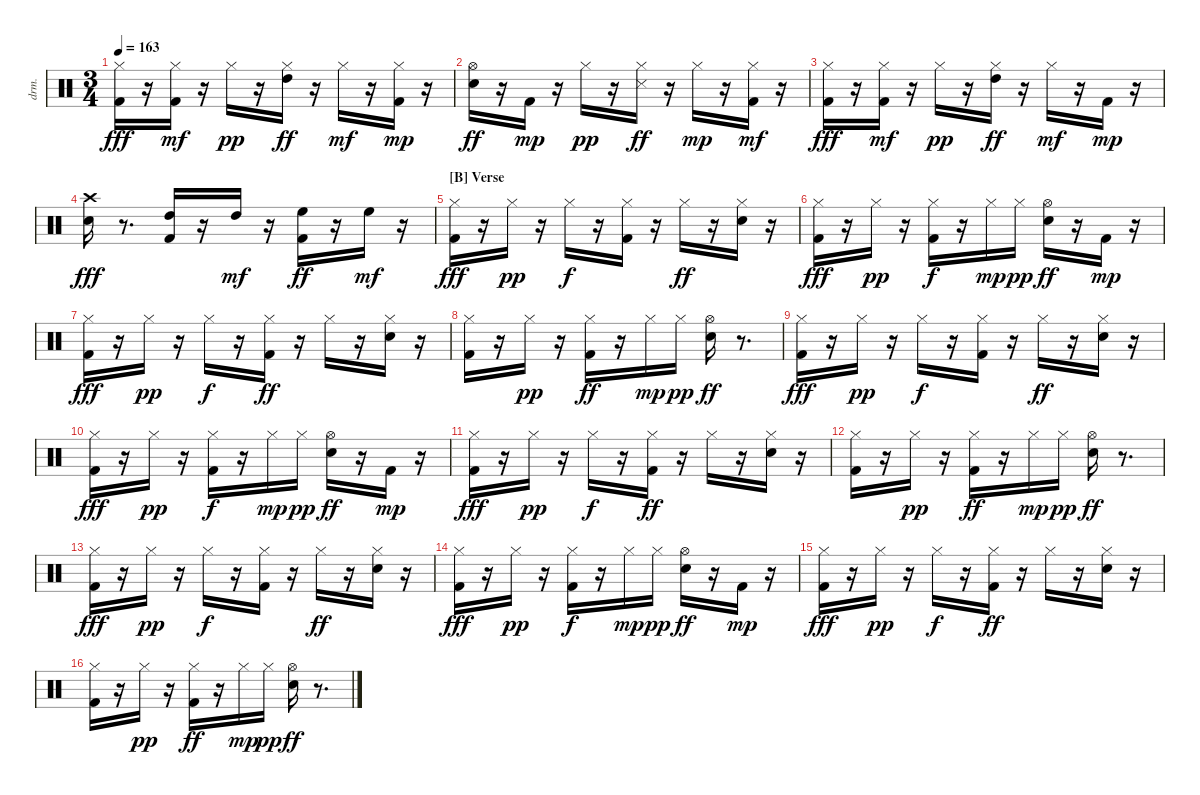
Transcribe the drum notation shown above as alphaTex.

\bracketExtendMode nobrackets
\track ("EZdrummer 3" "drm.") {instrument percussion}
\staff {score}
\articulation defaults
\ts (3 4)
\tempo 163
\clef neutral
\ks aminor
("Kick (hit) 2" "Hi-Hat (closed)"{acc #}).16{dy fff beam Down} r.16{beam Down} ("Kick (hit) 2" "Hi-Hat (closed)"{acc #}).16{dy mf beam Down} r.16{beam Down} "Hi-Hat (closed)"{acc #}.16{dy pp beam Down} r.16{beam Down} ("Hi-Hat (closed)"{acc #} "High Tom (hit)").16{dy ff beam Down} r.16{beam Down} "Hi-Hat (closed)"{acc #}.16{dy mf beam Down} r.16{beam Down} ("Kick (hit) 2" "Hi-Hat (closed)"{acc #}).16{dy mp beam Down} r.16{beam Down} |
("Snare (hit) 2" "Hi-Hat (open)"{acc #}).16{dy ff beam Down} r.16{beam Down} "Kick (hit) 2".16{dy mp beam Down} r.16{beam Down} "Hi-Hat (closed)"{acc #}.16{dy pp beam Down} r.16{beam Down} ("Snare (side stick) 3"{acc #} "Hi-Hat (closed)"{acc #}).16{dy ff beam Down} r.16{beam Down} "Hi-Hat (closed)"{acc #}.16{dy mp beam Down} r.16{beam Down} ("Kick (hit) 2" "Hi-Hat (closed)"{acc #}).16{dy mf beam Down} r.16{beam Down} |
("Kick (hit) 2" "Hi-Hat (closed)"{acc #}).16{dy fff beam Down} r.16{beam Down} ("Kick (hit) 2" "Hi-Hat (closed)"{acc #}).16{dy mf beam Down} r.16{beam Down} "Hi-Hat (closed)"{acc #}.16{dy pp beam Down} r.16{beam Down} ("Hi-Hat (closed)"{acc #} "High Tom (hit)").16{dy ff beam Down} r.16{beam Down} "Hi-Hat (closed)"{acc #}.16{dy mf beam Down} r.16{beam Down} "Kick (hit) 2".16{dy mp beam Down} r.16{beam Down} |
("Snare (hit) 2" "Crash high (hit)"{acc #}).16{dy fff beam Down} r.8{d beam Down} ("Kick (hit) 2" "High Tom (hit)").16{beam Up} r.16{beam Up} "High Tom (hit)".16{dy mf beam Up} r.16{beam Down} ("Kick (hit) 2" "High Floor Tom (hit)").16{dy ff beam Down} r.16{beam Down} "High Floor Tom (hit)".16{dy mf beam Down} r.16{beam Down} |
\section ("B" "Verse")
("Kick (hit) 2" "Hi-Hat (closed)"{acc #}).16{dy fff beam Down} r.16{beam Down} "Hi-Hat (closed)"{acc #}.16{dy pp beam Down} r.16{beam Down} "Hi-Hat (closed)"{acc #}.16{dy f beam Down} r.16{beam Down} ("Kick (hit) 2" "Hi-Hat (closed)"{acc #}).16{beam Down} r.16{beam Down} "Hi-Hat (closed)"{acc #}.16{dy ff beam Down} r.16{beam Down} ("Snare (hit) 2" "Hi-Hat (closed)"{acc #}).16{beam Down} r.16{beam Down} |
("Kick (hit) 2" "Hi-Hat (closed)"{acc #}).16{dy fff beam Down} r.16{beam Down} "Hi-Hat (closed)"{acc #}.16{dy pp beam Down} r.16{beam Down} ("Kick (hit) 2" "Hi-Hat (closed)"{acc #}).16{dy f beam Down} r.16{beam Down} "Hi-Hat (closed)"{acc #}.16{dy mp beam Down} "Hi-Hat (closed)"{acc #}.16{dy pp beam Down} ("Snare (hit) 2" "Hi-Hat (open)"{acc #}).16{dy ff beam Down} r.16{beam Down} "Kick (hit) 2".16{dy mp beam Down} r.16{beam Down} |
("Kick (hit) 2" "Hi-Hat (closed)"{acc #}).16{dy fff beam Down} r.16{beam Down} "Hi-Hat (closed)"{acc #}.16{dy pp beam Down} r.16{beam Down} "Hi-Hat (closed)"{acc #}.16{dy f beam Down} r.16{beam Down} ("Kick (hit) 2" "Hi-Hat (closed)"{acc #}).16{dy ff beam Down} r.16{beam Down} "Hi-Hat (closed)"{acc #}.16{beam Down} r.16{beam Down} ("Snare (hit) 2" "Hi-Hat (closed)"{acc #}).16{beam Down} r.16{beam Down} |
("Kick (hit) 2" "Hi-Hat (closed)"{acc #}).16{beam Down} r.16{beam Down} "Hi-Hat (closed)"{acc #}.16{dy pp beam Down} r.16{beam Down} ("Kick (hit) 2" "Hi-Hat (closed)"{acc #}).16{dy ff beam Down} r.16{beam Down} "Hi-Hat (closed)"{acc #}.16{dy mp beam Down} "Hi-Hat (closed)"{acc #}.16{dy pp beam Down} ("Snare (hit) 2" "Hi-Hat (open)"{acc #}).16{dy ff beam Down} r.8{d beam Down} |
("Kick (hit) 2" "Hi-Hat (closed)"{acc #}).16{dy fff beam Down} r.16{beam Down} "Hi-Hat (closed)"{acc #}.16{dy pp beam Down} r.16{beam Down} "Hi-Hat (closed)"{acc #}.16{dy f beam Down} r.16{beam Down} ("Kick (hit) 2" "Hi-Hat (closed)"{acc #}).16{beam Down} r.16{beam Down} "Hi-Hat (closed)"{acc #}.16{dy ff beam Down} r.16{beam Down} ("Snare (hit) 2" "Hi-Hat (closed)"{acc #}).16{beam Down} r.16{beam Down} |
("Kick (hit) 2" "Hi-Hat (closed)"{acc #}).16{dy fff beam Down} r.16{beam Down} "Hi-Hat (closed)"{acc #}.16{dy pp beam Down} r.16{beam Down} ("Kick (hit) 2" "Hi-Hat (closed)"{acc #}).16{dy f beam Down} r.16{beam Down} "Hi-Hat (closed)"{acc #}.16{dy mp beam Down} "Hi-Hat (closed)"{acc #}.16{dy pp beam Down} ("Snare (hit) 2" "Hi-Hat (open)"{acc #}).16{dy ff beam Down} r.16{beam Down} "Kick (hit) 2".16{dy mp beam Down} r.16{beam Down} |
("Kick (hit) 2" "Hi-Hat (closed)"{acc #}).16{dy fff beam Down} r.16{beam Down} "Hi-Hat (closed)"{acc #}.16{dy pp beam Down} r.16{beam Down} "Hi-Hat (closed)"{acc #}.16{dy f beam Down} r.16{beam Down} ("Kick (hit) 2" "Hi-Hat (closed)"{acc #}).16{dy ff beam Down} r.16{beam Down} "Hi-Hat (closed)"{acc #}.16{beam Down} r.16{beam Down} ("Snare (hit) 2" "Hi-Hat (closed)"{acc #}).16{beam Down} r.16{beam Down} |
("Kick (hit) 2" "Hi-Hat (closed)"{acc #}).16{beam Down} r.16{beam Down} "Hi-Hat (closed)"{acc #}.16{dy pp beam Down} r.16{beam Down} ("Kick (hit) 2" "Hi-Hat (closed)"{acc #}).16{dy ff beam Down} r.16{beam Down} "Hi-Hat (closed)"{acc #}.16{dy mp beam Down} "Hi-Hat (closed)"{acc #}.16{dy pp beam Down} ("Snare (hit) 2" "Hi-Hat (open)"{acc #}).16{dy ff beam Down} r.8{d beam Down} |
("Kick (hit) 2" "Hi-Hat (closed)"{acc #}).16{dy fff beam Down} r.16{beam Down} "Hi-Hat (closed)"{acc #}.16{dy pp beam Down} r.16{beam Down} "Hi-Hat (closed)"{acc #}.16{dy f beam Down} r.16{beam Down} ("Kick (hit) 2" "Hi-Hat (closed)"{acc #}).16{beam Down} r.16{beam Down} "Hi-Hat (closed)"{acc #}.16{dy ff beam Down} r.16{beam Down} ("Snare (hit) 2" "Hi-Hat (closed)"{acc #}).16{beam Down} r.16{beam Down} |
("Kick (hit) 2" "Hi-Hat (closed)"{acc #}).16{dy fff beam Down} r.16{beam Down} "Hi-Hat (closed)"{acc #}.16{dy pp beam Down} r.16{beam Down} ("Kick (hit) 2" "Hi-Hat (closed)"{acc #}).16{dy f beam Down} r.16{beam Down} "Hi-Hat (closed)"{acc #}.16{dy mp beam Down} "Hi-Hat (closed)"{acc #}.16{dy pp beam Down} ("Snare (hit) 2" "Hi-Hat (open)"{acc #}).16{dy ff beam Down} r.16{beam Down} "Kick (hit) 2".16{dy mp beam Down} r.16{beam Down} |
("Kick (hit) 2" "Hi-Hat (closed)"{acc #}).16{dy fff beam Down} r.16{beam Down} "Hi-Hat (closed)"{acc #}.16{dy pp beam Down} r.16{beam Down} "Hi-Hat (closed)"{acc #}.16{dy f beam Down} r.16{beam Down} ("Kick (hit) 2" "Hi-Hat (closed)"{acc #}).16{dy ff beam Down} r.16{beam Down} "Hi-Hat (closed)"{acc #}.16{beam Down} r.16{beam Down} ("Snare (hit) 2" "Hi-Hat (closed)"{acc #}).16{beam Down} r.16{beam Down} |
("Kick (hit) 2" "Hi-Hat (closed)"{acc #}).16{beam Down} r.16{beam Down} "Hi-Hat (closed)"{acc #}.16{dy pp beam Down} r.16{beam Down} ("Kick (hit) 2" "Hi-Hat (closed)"{acc #}).16{dy ff beam Down} r.16{beam Down} "Hi-Hat (closed)"{acc #}.16{dy mp beam Down} "Hi-Hat (closed)"{acc #}.16{dy pp beam Down} ("Snare (hit) 2" "Hi-Hat (open)"{acc #}).16{dy ff beam Down} r.8{d beam Down}
